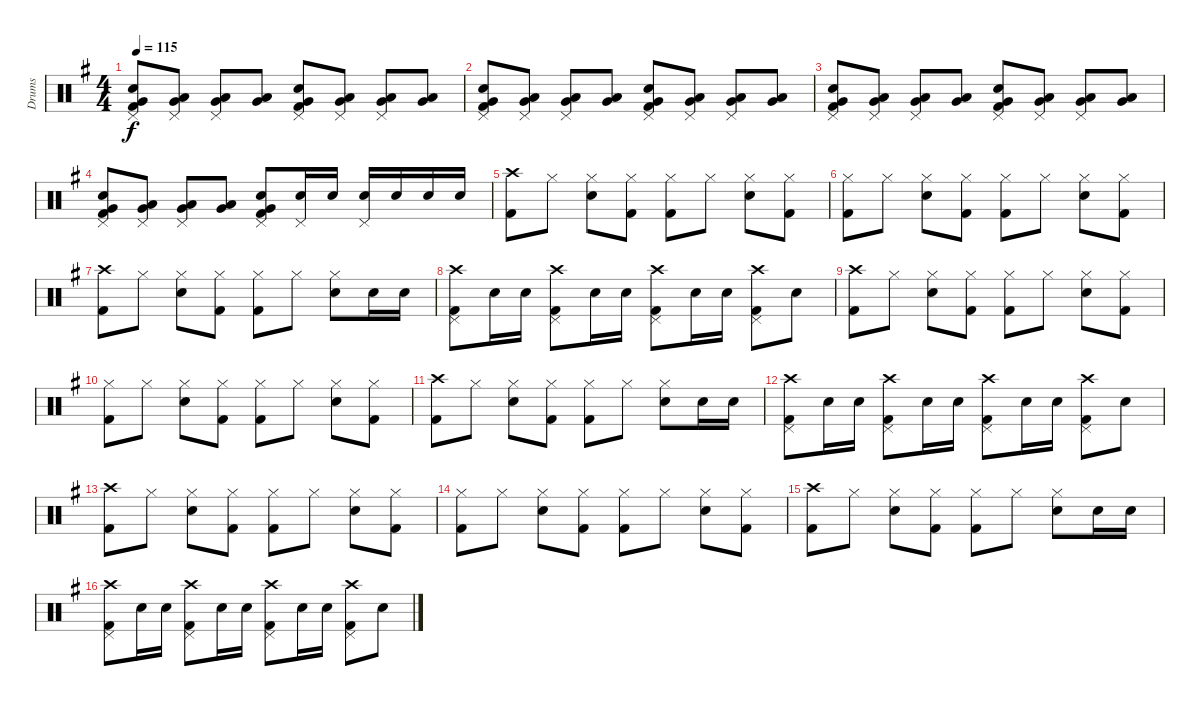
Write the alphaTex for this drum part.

\track ("Drums" "Drums") {instrument percussion}
\staff {score}
\articulation defaults
\ts (4 4)
\tempo 115
\clef neutral
\ks eminor
("Pedal Hi-Hat (hit)" "Electric Snare (hit)" "Very Low Tom (hit)" "Kick (hit) 2").8{dy f} ("Pedal Hi-Hat (hit)" "Low Tom (hit)" "Very Low Tom (hit)").8 ("Pedal Hi-Hat (hit)" "Low Tom (hit)" "Very Low Tom (hit)").8 ("Low Tom (hit)" "Very Low Tom (hit)").8 ("Pedal Hi-Hat (hit)" "Electric Snare (hit)" "Very Low Tom (hit)" "Kick (hit) 2").8 ("Pedal Hi-Hat (hit)" "Low Tom (hit)" "Very Low Tom (hit)").8 ("Pedal Hi-Hat (hit)" "Low Tom (hit)" "Very Low Tom (hit)").8 ("Low Tom (hit)" "Very Low Tom (hit)").8 |
("Pedal Hi-Hat (hit)" "Electric Snare (hit)" "Very Low Tom (hit)" "Kick (hit) 2").8 ("Pedal Hi-Hat (hit)" "Low Tom (hit)" "Very Low Tom (hit)").8 ("Pedal Hi-Hat (hit)" "Low Tom (hit)" "Very Low Tom (hit)").8 ("Low Tom (hit)" "Very Low Tom (hit)").8 ("Pedal Hi-Hat (hit)" "Electric Snare (hit)" "Very Low Tom (hit)" "Kick (hit) 2").8 ("Pedal Hi-Hat (hit)" "Low Tom (hit)" "Very Low Tom (hit)").8 ("Pedal Hi-Hat (hit)" "Low Tom (hit)" "Very Low Tom (hit)").8 ("Low Tom (hit)" "Very Low Tom (hit)").8 |
("Pedal Hi-Hat (hit)" "Electric Snare (hit)" "Very Low Tom (hit)" "Kick (hit) 2").8 ("Pedal Hi-Hat (hit)" "Low Tom (hit)" "Very Low Tom (hit)").8 ("Pedal Hi-Hat (hit)" "Low Tom (hit)" "Very Low Tom (hit)").8 ("Low Tom (hit)" "Very Low Tom (hit)").8 ("Pedal Hi-Hat (hit)" "Electric Snare (hit)" "Very Low Tom (hit)" "Kick (hit) 2").8 ("Pedal Hi-Hat (hit)" "Low Tom (hit)" "Very Low Tom (hit)").8 ("Pedal Hi-Hat (hit)" "Low Tom (hit)" "Very Low Tom (hit)").8 ("Low Tom (hit)" "Very Low Tom (hit)").8 |
("Pedal Hi-Hat (hit)" "Electric Snare (hit)" "Very Low Tom (hit)" "Kick (hit) 2").8 ("Pedal Hi-Hat (hit)" "Low Tom (hit)" "Very Low Tom (hit)").8 ("Pedal Hi-Hat (hit)" "Low Tom (hit)" "Very Low Tom (hit)").8 ("Low Tom (hit)" "Very Low Tom (hit)").8 ("Pedal Hi-Hat (hit)" "Electric Snare (hit)" "Very Low Tom (hit)" "Kick (hit) 2").8 ("Pedal Hi-Hat (hit)" "Electric Snare (hit)").16 "Electric Snare (hit)".16 ("Pedal Hi-Hat (hit)" "Electric Snare (hit)").16 "Electric Snare (hit)".16 "Electric Snare (hit)".16 "Electric Snare (hit)".16 |
("Crash high (hit)" "Kick (hit) 2").8 "Hi-Hat (closed)".8 ("Hi-Hat (closed)" "Electric Snare (hit)").8 ("Hi-Hat (closed)" "Kick (hit) 2").8 ("Hi-Hat (closed)" "Kick (hit) 2").8 "Hi-Hat (closed)".8 ("Hi-Hat (closed)" "Electric Snare (hit)").8 ("Hi-Hat (closed)" "Kick (hit) 2").8 |
("Hi-Hat (closed)" "Kick (hit) 2").8 "Hi-Hat (closed)".8 ("Hi-Hat (closed)" "Electric Snare (hit)").8 ("Hi-Hat (closed)" "Kick (hit) 2").8 ("Hi-Hat (closed)" "Kick (hit) 2").8 "Hi-Hat (closed)".8 ("Hi-Hat (closed)" "Electric Snare (hit)").8 ("Hi-Hat (closed)" "Kick (hit) 2").8 |
("Crash high (hit)" "Kick (hit) 2").8 "Hi-Hat (closed)".8 ("Hi-Hat (closed)" "Electric Snare (hit)").8 ("Hi-Hat (closed)" "Kick (hit) 2").8 ("Hi-Hat (closed)" "Kick (hit) 2").8 "Hi-Hat (closed)".8 ("Hi-Hat (closed)" "Electric Snare (hit)").8 "Electric Snare (hit)".16 "Electric Snare (hit)".16 |
("Crash high (hit)" "Pedal Hi-Hat (hit)" "Kick (hit) 2").8 "Electric Snare (hit)".16 "Electric Snare (hit)".16 ("Crash high (hit)" "Pedal Hi-Hat (hit)" "Kick (hit) 2").8 "Electric Snare (hit)".16 "Electric Snare (hit)".16 ("Crash high (hit)" "Pedal Hi-Hat (hit)" "Kick (hit) 2").8 "Electric Snare (hit)".16 "Electric Snare (hit)".16 ("Crash high (hit)" "Pedal Hi-Hat (hit)" "Kick (hit) 2").8 "Electric Snare (hit)".8 |
("Crash high (hit)" "Kick (hit) 2").8 "Hi-Hat (closed)".8 ("Hi-Hat (closed)" "Electric Snare (hit)").8 ("Hi-Hat (closed)" "Kick (hit) 2").8 ("Hi-Hat (closed)" "Kick (hit) 2").8 "Hi-Hat (closed)".8 ("Hi-Hat (closed)" "Electric Snare (hit)").8 ("Hi-Hat (closed)" "Kick (hit) 2").8 |
("Hi-Hat (closed)" "Kick (hit) 2").8 "Hi-Hat (closed)".8 ("Hi-Hat (closed)" "Electric Snare (hit)").8 ("Hi-Hat (closed)" "Kick (hit) 2").8 ("Hi-Hat (closed)" "Kick (hit) 2").8 "Hi-Hat (closed)".8 ("Hi-Hat (closed)" "Electric Snare (hit)").8 ("Hi-Hat (closed)" "Kick (hit) 2").8 |
("Crash high (hit)" "Kick (hit) 2").8 "Hi-Hat (closed)".8 ("Hi-Hat (closed)" "Electric Snare (hit)").8 ("Hi-Hat (closed)" "Kick (hit) 2").8 ("Hi-Hat (closed)" "Kick (hit) 2").8 "Hi-Hat (closed)".8 ("Hi-Hat (closed)" "Electric Snare (hit)").8 "Electric Snare (hit)".16 "Electric Snare (hit)".16 |
("Crash high (hit)" "Pedal Hi-Hat (hit)" "Kick (hit) 2").8 "Electric Snare (hit)".16 "Electric Snare (hit)".16 ("Crash high (hit)" "Pedal Hi-Hat (hit)" "Kick (hit) 2").8 "Electric Snare (hit)".16 "Electric Snare (hit)".16 ("Crash high (hit)" "Pedal Hi-Hat (hit)" "Kick (hit) 2").8 "Electric Snare (hit)".16 "Electric Snare (hit)".16 ("Crash high (hit)" "Pedal Hi-Hat (hit)" "Kick (hit) 2").8 "Electric Snare (hit)".8 |
("Crash high (hit)" "Kick (hit) 2").8 "Hi-Hat (closed)".8 ("Hi-Hat (closed)" "Electric Snare (hit)").8 ("Hi-Hat (closed)" "Kick (hit) 2").8 ("Hi-Hat (closed)" "Kick (hit) 2").8 "Hi-Hat (closed)".8 ("Hi-Hat (closed)" "Electric Snare (hit)").8 ("Hi-Hat (closed)" "Kick (hit) 2").8 |
("Hi-Hat (closed)" "Kick (hit) 2").8 "Hi-Hat (closed)".8 ("Hi-Hat (closed)" "Electric Snare (hit)").8 ("Hi-Hat (closed)" "Kick (hit) 2").8 ("Hi-Hat (closed)" "Kick (hit) 2").8 "Hi-Hat (closed)".8 ("Hi-Hat (closed)" "Electric Snare (hit)").8 ("Hi-Hat (closed)" "Kick (hit) 2").8 |
("Crash high (hit)" "Kick (hit) 2").8 "Hi-Hat (closed)".8 ("Hi-Hat (closed)" "Electric Snare (hit)").8 ("Hi-Hat (closed)" "Kick (hit) 2").8 ("Hi-Hat (closed)" "Kick (hit) 2").8 "Hi-Hat (closed)".8 ("Hi-Hat (closed)" "Electric Snare (hit)").8 "Electric Snare (hit)".16 "Electric Snare (hit)".16 |
("Crash high (hit)" "Pedal Hi-Hat (hit)" "Kick (hit) 2").8 "Electric Snare (hit)".16 "Electric Snare (hit)".16 ("Crash high (hit)" "Pedal Hi-Hat (hit)" "Kick (hit) 2").8 "Electric Snare (hit)".16 "Electric Snare (hit)".16 ("Crash high (hit)" "Pedal Hi-Hat (hit)" "Kick (hit) 2").8 "Electric Snare (hit)".16 "Electric Snare (hit)".16 ("Crash high (hit)" "Pedal Hi-Hat (hit)" "Kick (hit) 2").8 "Electric Snare (hit)".8
